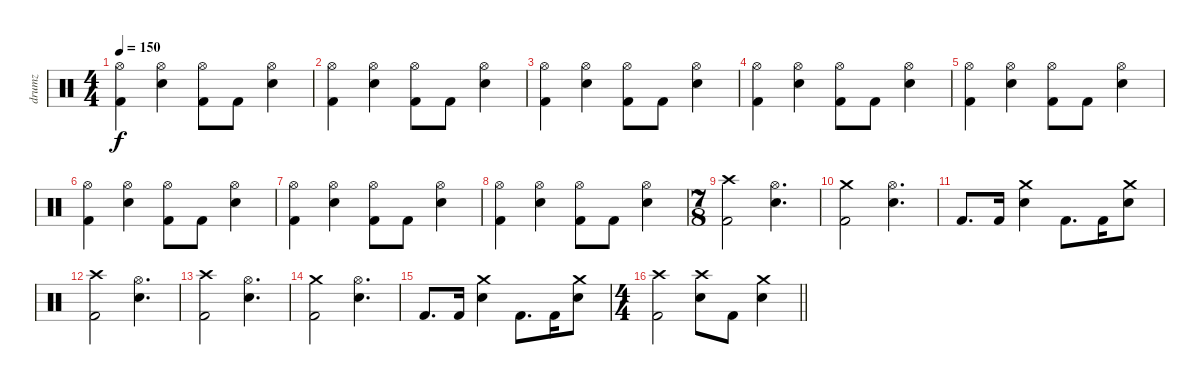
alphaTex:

\track ("drumz" "drumz") {instrument percussion}
\staff {score}
\articulation defaults
\ts (4 4)
\tempo 150
\clef neutral
\ks c
("Hi-Hat (open)" "Kick (hit) 2").4{dy f} ("Hi-Hat (open)" "Electric Snare (hit)").4 ("Hi-Hat (open)" "Kick (hit) 2").8 "Kick (hit) 2".8 ("Hi-Hat (open)" "Electric Snare (hit)").4 |
("Hi-Hat (open)" "Kick (hit) 2").4 ("Hi-Hat (open)" "Electric Snare (hit)").4 ("Hi-Hat (open)" "Kick (hit) 2").8 "Kick (hit) 2".8 ("Hi-Hat (open)" "Electric Snare (hit)").4 |
("Hi-Hat (open)" "Kick (hit) 2").4 ("Hi-Hat (open)" "Electric Snare (hit)").4 ("Hi-Hat (open)" "Kick (hit) 2").8 "Kick (hit) 2".8 ("Hi-Hat (open)" "Electric Snare (hit)").4 |
("Hi-Hat (open)" "Kick (hit) 2").4 ("Hi-Hat (open)" "Electric Snare (hit)").4 ("Hi-Hat (open)" "Kick (hit) 2").8 "Kick (hit) 2".8 ("Hi-Hat (open)" "Electric Snare (hit)").4 |
("Hi-Hat (open)" "Kick (hit) 2").4 ("Hi-Hat (open)" "Electric Snare (hit)").4 ("Hi-Hat (open)" "Kick (hit) 2").8 "Kick (hit) 2".8 ("Hi-Hat (open)" "Electric Snare (hit)").4 |
("Hi-Hat (open)" "Kick (hit) 2").4 ("Hi-Hat (open)" "Electric Snare (hit)").4 ("Hi-Hat (open)" "Kick (hit) 2").8 "Kick (hit) 2".8 ("Hi-Hat (open)" "Electric Snare (hit)").4 |
("Hi-Hat (open)" "Kick (hit) 2").4 ("Hi-Hat (open)" "Electric Snare (hit)").4 ("Hi-Hat (open)" "Kick (hit) 2").8 "Kick (hit) 2".8 ("Hi-Hat (open)" "Electric Snare (hit)").4 |
("Hi-Hat (open)" "Kick (hit) 2").4 ("Hi-Hat (open)" "Electric Snare (hit)").4 ("Hi-Hat (open)" "Kick (hit) 2").8 "Kick (hit) 2".8 ("Hi-Hat (open)" "Electric Snare (hit)").4 |
\ts (7 8)
("Crash high (hit)" "Kick (hit) 2").2 ("Hi-Hat (open)" "Electric Snare (hit)").4{d} |
("Crash medium (hit)" "Kick (hit) 2").2 ("Hi-Hat (open)" "Electric Snare (hit)").4{d} |
"Kick (hit) 2".8{d} "Kick (hit) 2".16 ("Crash medium (hit)" "Electric Snare (hit)").4 "Kick (hit) 2".8{d} "Kick (hit) 2".16 ("Crash medium (hit)" "Electric Snare (hit)").8 |
("Crash high (hit)" "Kick (hit) 2").2 ("Hi-Hat (open)" "Electric Snare (hit)").4{d} |
("Crash high (hit)" "Kick (hit) 2").2 ("Hi-Hat (open)" "Electric Snare (hit)").4{d} |
("Crash medium (hit)" "Kick (hit) 2").2 ("Hi-Hat (open)" "Electric Snare (hit)").4{d} |
"Kick (hit) 2".8{d} "Kick (hit) 2".16 ("Crash medium (hit)" "Electric Snare (hit)").4 "Kick (hit) 2".8{d} "Kick (hit) 2".16 ("Crash medium (hit)" "Electric Snare (hit)").8 |
\ts (4 4)
\barLineRight lightlight
("Crash high (hit)" "Kick (hit) 2").2 ("Crash high (hit)" "Electric Snare (hit)").8 "Kick (hit) 2".8 ("Crash medium (hit)" "Electric Snare (hit)").4
